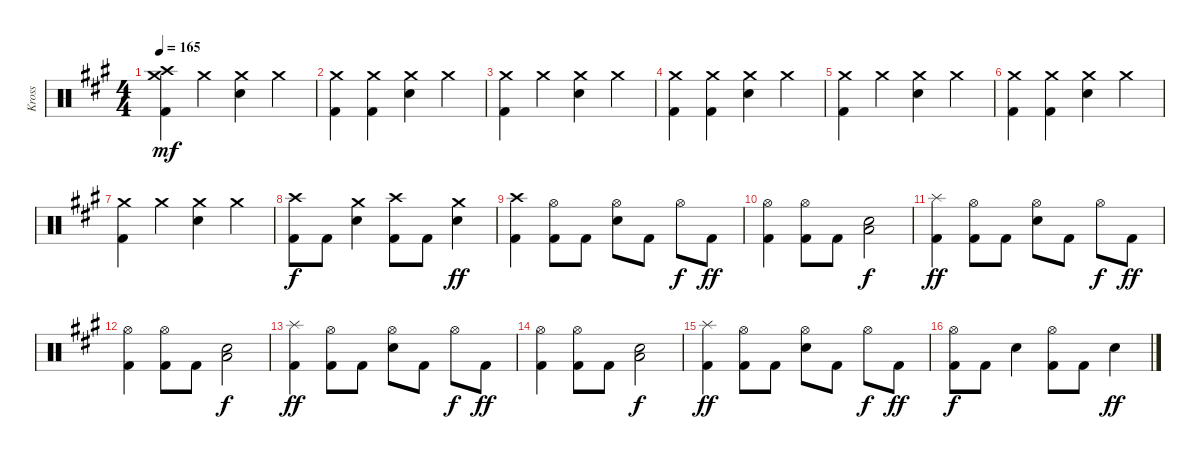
\track ("Kross" "Kross") {instrument percussion}
\staff {score}
\articulation defaults
\ts (4 4)
\tempo 165
\clef neutral
\ks a
("Crash medium (hit)" "Crash high (hit)" "Kick (hit) 2").4{dy mf} "Crash medium (hit)".4 ("Crash medium (hit)" "Electric Snare (hit)").4 "Crash medium (hit)".4 |
("Crash medium (hit)" "Kick (hit) 2").4 ("Crash medium (hit)" "Kick (hit) 2").4 ("Crash medium (hit)" "Electric Snare (hit)").4 "Crash medium (hit)".4 |
("Crash medium (hit)" "Kick (hit) 2").4 "Crash medium (hit)".4 ("Crash medium (hit)" "Electric Snare (hit)").4 "Crash medium (hit)".4 |
("Crash medium (hit)" "Kick (hit) 2").4 ("Crash medium (hit)" "Kick (hit) 2").4 ("Crash medium (hit)" "Electric Snare (hit)").4 "Crash medium (hit)".4 |
("Crash medium (hit)" "Kick (hit) 2").4 "Crash medium (hit)".4 ("Crash medium (hit)" "Electric Snare (hit)").4 "Crash medium (hit)".4 |
("Crash medium (hit)" "Kick (hit) 2").4 ("Crash medium (hit)" "Kick (hit) 2").4 ("Crash medium (hit)" "Electric Snare (hit)").4 "Crash medium (hit)".4 |
("Crash medium (hit)" "Kick (hit) 2").4 "Crash medium (hit)".4 ("Crash medium (hit)" "Electric Snare (hit)").4 "Crash medium (hit)".4 |
("Crash high (hit)" "Kick (hit) 2").8{dy f} "Kick (hit) 2".8 ("Crash medium (hit)" "Snare (hit) 2").4 ("Crash high (hit)" "Kick (hit) 2").8 "Kick (hit) 2".8 ("Crash medium (hit)" "Snare (hit) 2").4{dy ff} |
("Crash high (hit)" "Kick (hit) 2").4 ("Hi-Hat (open)" "Kick (hit) 2").8 "Kick (hit) 2".8 ("Hi-Hat (open)" "Snare (hit) 2").8 "Kick (hit) 2".8 "Hi-Hat (open)".8{dy f} "Kick (hit) 2".8{dy ff} |
("Hi-Hat (open)" "Kick (hit) 2").4 ("Hi-Hat (open)" "Kick (hit) 2").8 "Kick (hit) 2".8 ("Snare (hit) 2" "Low Floor Tom (hit)").2{dy f} |
("Splash (hit)" "Kick (hit) 2").4{dy ff} ("Hi-Hat (open)" "Kick (hit) 2").8 "Kick (hit) 2".8 ("Hi-Hat (open)" "Snare (hit) 2").8 "Kick (hit) 2".8 "Hi-Hat (open)".8{dy f} "Kick (hit) 2".8{dy ff} |
("Hi-Hat (open)" "Kick (hit) 2").4 ("Hi-Hat (open)" "Kick (hit) 2").8 "Kick (hit) 2".8 ("Snare (hit) 2" "Low Floor Tom (hit)").2{dy f} |
("Splash (hit)" "Kick (hit) 2").4{dy ff} ("Hi-Hat (open)" "Kick (hit) 2").8 "Kick (hit) 2".8 ("Hi-Hat (open)" "Snare (hit) 2").8 "Kick (hit) 2".8 "Hi-Hat (open)".8{dy f} "Kick (hit) 2".8{dy ff} |
("Hi-Hat (open)" "Kick (hit) 2").4 ("Hi-Hat (open)" "Kick (hit) 2").8 "Kick (hit) 2".8 ("Snare (hit) 2" "Low Floor Tom (hit)").2{dy f} |
("Splash (hit)" "Kick (hit) 2").4{dy ff} ("Hi-Hat (open)" "Kick (hit) 2").8 "Kick (hit) 2".8 ("Hi-Hat (open)" "Snare (hit) 2").8 "Kick (hit) 2".8 "Hi-Hat (open)".8{dy f} "Kick (hit) 2".8{dy ff} |
("Hi-Hat (open)" "Kick (hit) 2").8{dy f} "Kick (hit) 2".8 "Snare (hit) 2".4 ("Hi-Hat (open)" "Kick (hit) 2").8 "Kick (hit) 2".8 "Snare (hit) 2".4{dy ff}
